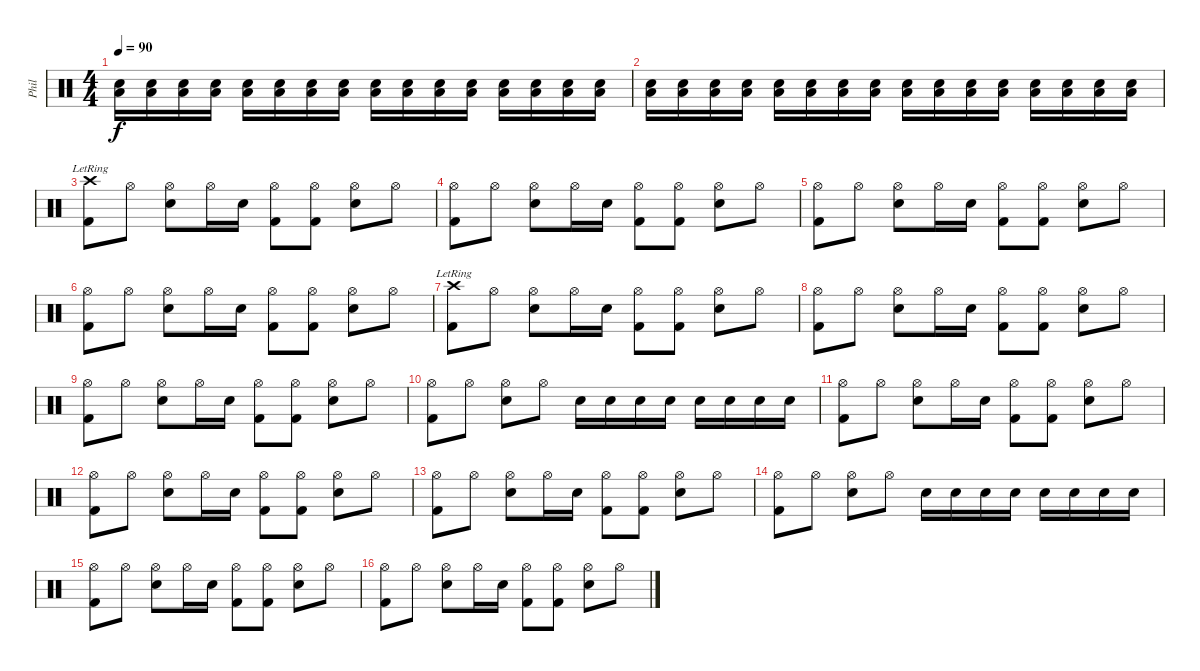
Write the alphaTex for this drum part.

\track ("Phil" "Phil") {instrument percussion}
\staff {score}
\articulation defaults
\ts (4 4)
\tempo 90
\clef neutral
\ks c
("Snare (hit) 2" "Low Floor Tom (hit)").16{dy f} ("Snare (hit) 2" "Low Floor Tom (hit)").16 ("Snare (hit) 2" "Low Floor Tom (hit)").16 ("Snare (hit) 2" "Low Floor Tom (hit)").16 ("Snare (hit) 2" "Low Floor Tom (hit)").16 ("Snare (hit) 2" "Low Floor Tom (hit)").16 ("Snare (hit) 2" "Low Floor Tom (hit)").16 ("Snare (hit) 2" "Low Floor Tom (hit)").16 ("Snare (hit) 2" "Low Floor Tom (hit)").16 ("Snare (hit) 2" "Low Floor Tom (hit)").16 ("Snare (hit) 2" "Low Floor Tom (hit)").16 ("Snare (hit) 2" "Low Floor Tom (hit)").16 ("Snare (hit) 2" "Low Floor Tom (hit)").16 ("Snare (hit) 2" "Low Floor Tom (hit)").16 ("Snare (hit) 2" "Low Floor Tom (hit)").16 ("Snare (hit) 2" "Low Floor Tom (hit)").16 |
("Snare (hit) 2" "Low Floor Tom (hit)").16 ("Snare (hit) 2" "Low Floor Tom (hit)").16 ("Snare (hit) 2" "Low Floor Tom (hit)").16 ("Snare (hit) 2" "Low Floor Tom (hit)").16 ("Snare (hit) 2" "Low Floor Tom (hit)").16 ("Snare (hit) 2" "Low Floor Tom (hit)").16 ("Snare (hit) 2" "Low Floor Tom (hit)").16 ("Snare (hit) 2" "Low Floor Tom (hit)").16 ("Snare (hit) 2" "Low Floor Tom (hit)").16 ("Snare (hit) 2" "Low Floor Tom (hit)").16 ("Snare (hit) 2" "Low Floor Tom (hit)").16 ("Snare (hit) 2" "Low Floor Tom (hit)").16 ("Snare (hit) 2" "Low Floor Tom (hit)").16 ("Snare (hit) 2" "Low Floor Tom (hit)").16 ("Snare (hit) 2" "Low Floor Tom (hit)").16 ("Snare (hit) 2" "Low Floor Tom (hit)").16 |
("Kick (hit) 2" "Crash high (hit)"{lr}).8 "Hi-Hat (open)".8 ("Snare (hit) 2" "Hi-Hat (open)").8 "Hi-Hat (open)".16 "Snare (hit) 2".16 ("Kick (hit) 2" "Hi-Hat (open)").8 ("Kick (hit) 2" "Hi-Hat (open)").8 ("Snare (hit) 2" "Hi-Hat (open)").8 "Hi-Hat (open)".8 |
("Kick (hit) 2" "Hi-Hat (open)").8 "Hi-Hat (open)".8 ("Snare (hit) 2" "Hi-Hat (open)").8 "Hi-Hat (open)".16 "Snare (hit) 2".16 ("Kick (hit) 2" "Hi-Hat (open)").8 ("Kick (hit) 2" "Hi-Hat (open)").8 ("Snare (hit) 2" "Hi-Hat (open)").8 "Hi-Hat (open)".8 |
("Kick (hit) 2" "Hi-Hat (open)").8 "Hi-Hat (open)".8 ("Snare (hit) 2" "Hi-Hat (open)").8 "Hi-Hat (open)".16 "Snare (hit) 2".16 ("Kick (hit) 2" "Hi-Hat (open)").8 ("Kick (hit) 2" "Hi-Hat (open)").8 ("Snare (hit) 2" "Hi-Hat (open)").8 "Hi-Hat (open)".8 |
("Kick (hit) 2" "Hi-Hat (open)").8 "Hi-Hat (open)".8 ("Snare (hit) 2" "Hi-Hat (open)").8 "Hi-Hat (open)".16 "Snare (hit) 2".16 ("Kick (hit) 2" "Hi-Hat (open)").8 ("Kick (hit) 2" "Hi-Hat (open)").8 ("Snare (hit) 2" "Hi-Hat (open)").8 "Hi-Hat (open)".8 |
("Kick (hit) 2" "Crash high (hit)"{lr}).8 "Hi-Hat (open)".8 ("Snare (hit) 2" "Hi-Hat (open)").8 "Hi-Hat (open)".16 "Snare (hit) 2".16 ("Kick (hit) 2" "Hi-Hat (open)").8 ("Kick (hit) 2" "Hi-Hat (open)").8 ("Snare (hit) 2" "Hi-Hat (open)").8 "Hi-Hat (open)".8 |
("Kick (hit) 2" "Hi-Hat (open)").8 "Hi-Hat (open)".8 ("Snare (hit) 2" "Hi-Hat (open)").8 "Hi-Hat (open)".16 "Snare (hit) 2".16 ("Kick (hit) 2" "Hi-Hat (open)").8 ("Kick (hit) 2" "Hi-Hat (open)").8 ("Snare (hit) 2" "Hi-Hat (open)").8 "Hi-Hat (open)".8 |
("Kick (hit) 2" "Hi-Hat (open)").8 "Hi-Hat (open)".8 ("Snare (hit) 2" "Hi-Hat (open)").8 "Hi-Hat (open)".16 "Snare (hit) 2".16 ("Kick (hit) 2" "Hi-Hat (open)").8 ("Kick (hit) 2" "Hi-Hat (open)").8 ("Snare (hit) 2" "Hi-Hat (open)").8 "Hi-Hat (open)".8 |
("Kick (hit) 2" "Hi-Hat (open)").8 "Hi-Hat (open)".8 ("Snare (hit) 2" "Hi-Hat (open)").8 "Hi-Hat (open)".8 "Snare (hit) 2".16 "Snare (hit) 2".16 "Snare (hit) 2".16 "Snare (hit) 2".16 "Snare (hit) 2".16 "Snare (hit) 2".16 "Snare (hit) 2".16 "Snare (hit) 2".16 |
("Kick (hit) 2" "Hi-Hat (open)").8 "Hi-Hat (open)".8 ("Snare (hit) 2" "Hi-Hat (open)").8 "Hi-Hat (open)".16 "Snare (hit) 2".16 ("Kick (hit) 2" "Hi-Hat (open)").8 ("Kick (hit) 2" "Hi-Hat (open)").8 ("Snare (hit) 2" "Hi-Hat (open)").8 "Hi-Hat (open)".8 |
("Kick (hit) 2" "Hi-Hat (open)").8 "Hi-Hat (open)".8 ("Snare (hit) 2" "Hi-Hat (open)").8 "Hi-Hat (open)".16 "Snare (hit) 2".16 ("Kick (hit) 2" "Hi-Hat (open)").8 ("Kick (hit) 2" "Hi-Hat (open)").8 ("Snare (hit) 2" "Hi-Hat (open)").8 "Hi-Hat (open)".8 |
("Kick (hit) 2" "Hi-Hat (open)").8 "Hi-Hat (open)".8 ("Snare (hit) 2" "Hi-Hat (open)").8 "Hi-Hat (open)".16 "Snare (hit) 2".16 ("Kick (hit) 2" "Hi-Hat (open)").8 ("Kick (hit) 2" "Hi-Hat (open)").8 ("Snare (hit) 2" "Hi-Hat (open)").8 "Hi-Hat (open)".8 |
("Kick (hit) 2" "Hi-Hat (open)").8 "Hi-Hat (open)".8 ("Snare (hit) 2" "Hi-Hat (open)").8 "Hi-Hat (open)".8 "Snare (hit) 2".16 "Snare (hit) 2".16 "Snare (hit) 2".16 "Snare (hit) 2".16 "Snare (hit) 2".16 "Snare (hit) 2".16 "Snare (hit) 2".16 "Snare (hit) 2".16 |
("Kick (hit) 2" "Hi-Hat (open)").8 "Hi-Hat (open)".8 ("Snare (hit) 2" "Hi-Hat (open)").8 "Hi-Hat (open)".16 "Snare (hit) 2".16 ("Kick (hit) 2" "Hi-Hat (open)").8 ("Kick (hit) 2" "Hi-Hat (open)").8 ("Snare (hit) 2" "Hi-Hat (open)").8 "Hi-Hat (open)".8 |
("Kick (hit) 2" "Hi-Hat (open)").8 "Hi-Hat (open)".8 ("Snare (hit) 2" "Hi-Hat (open)").8 "Hi-Hat (open)".16 "Snare (hit) 2".16 ("Kick (hit) 2" "Hi-Hat (open)").8 ("Kick (hit) 2" "Hi-Hat (open)").8 ("Snare (hit) 2" "Hi-Hat (open)").8 "Hi-Hat (open)".8
